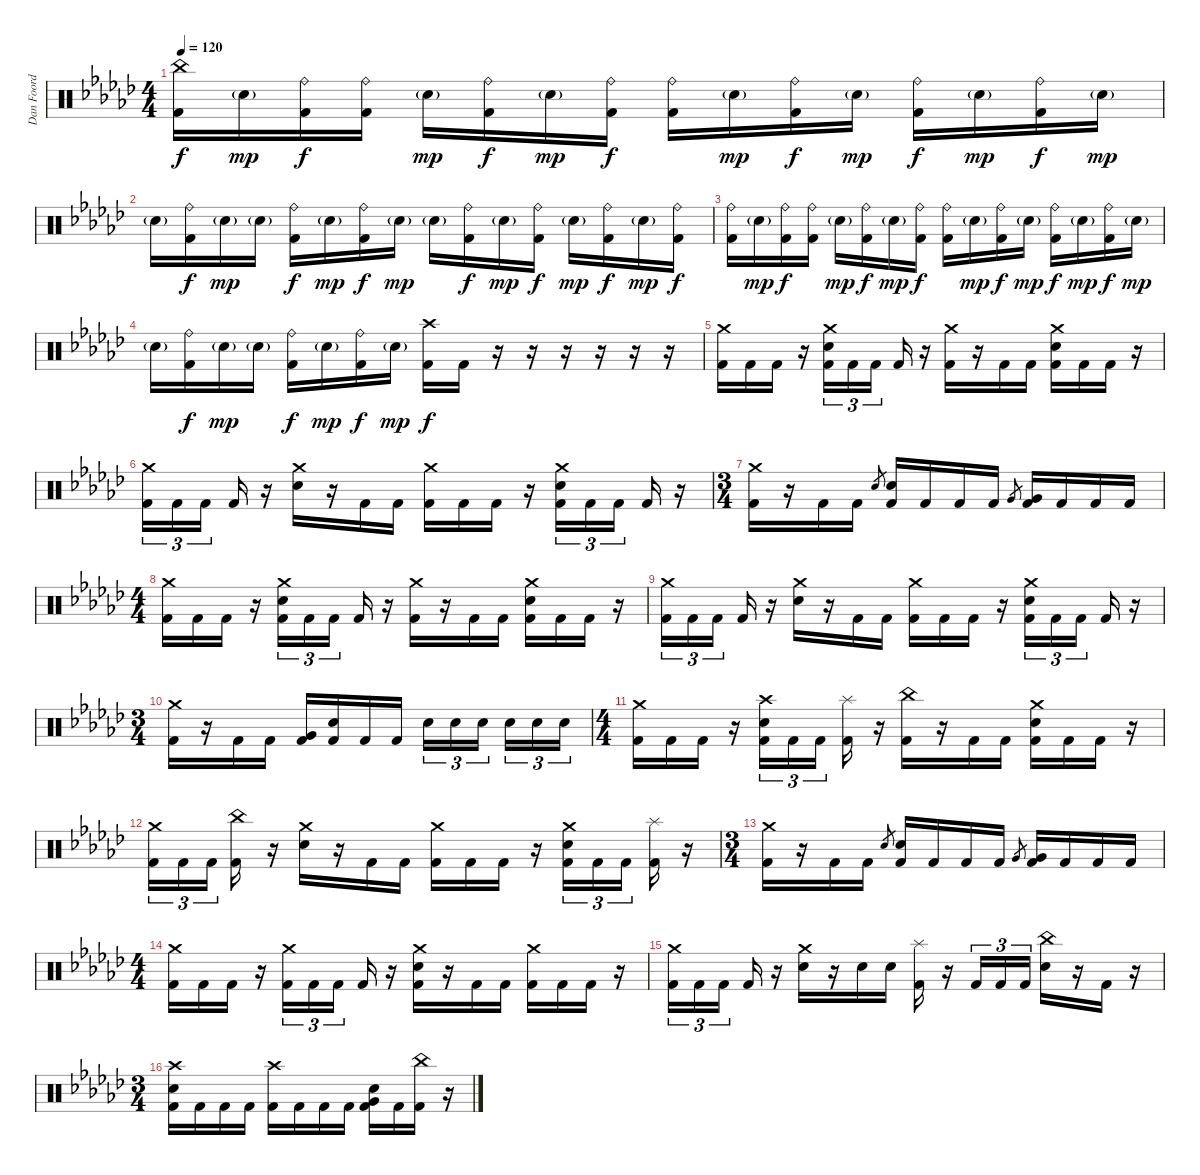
\track ("Dan Foord 2" "Dan Foord ") {instrument percussion}
\staff {score}
\articulation defaults
\ts (4 4)
\tempo 120
\clef neutral
\ks gb
("China (hit)" "Kick (hit) 2").16{dy f} "Snare (hit) 2"{g}.16{dy mp} ("Ride (bell)" "Kick (hit) 2").16{dy f} ("Ride (bell)" "Kick (hit) 2").16 "Snare (hit) 2"{g}.16{dy mp} ("Ride (bell)" "Kick (hit) 2").16{dy f} "Snare (hit) 2"{g}.16{dy mp} ("Ride (bell)" "Kick (hit) 2").16{dy f} ("Ride (bell)" "Kick (hit) 2").16 "Snare (hit) 2"{g}.16{dy mp} ("Ride (bell)" "Kick (hit) 2").16{dy f} "Snare (hit) 2"{g}.16{dy mp} ("Ride (bell)" "Kick (hit) 2").16{dy f} "Snare (hit) 2"{g}.16{dy mp} ("Ride (bell)" "Kick (hit) 2").16{dy f} "Snare (hit) 2"{g}.16{dy mp} |
"Snare (hit) 2"{g}.16 ("Ride (bell)" "Kick (hit) 2").16{dy f} "Snare (hit) 2"{g}.16{dy mp} "Snare (hit) 2"{g}.16 ("Ride (bell)" "Kick (hit) 2").16{dy f} "Snare (hit) 2"{g}.16{dy mp} ("Ride (bell)" "Kick (hit) 2").16{dy f} "Snare (hit) 2"{g}.16{dy mp} "Snare (hit) 2"{g}.16 ("Ride (bell)" "Kick (hit) 2").16{dy f} "Snare (hit) 2"{g}.16{dy mp} ("Ride (bell)" "Kick (hit) 2").16{dy f} "Snare (hit) 2"{g}.16{dy mp} ("Ride (bell)" "Kick (hit) 2").16{dy f} "Snare (hit) 2"{g}.16{dy mp} ("Ride (bell)" "Kick (hit) 2").16{dy f} |
("Ride (bell)" "Kick (hit) 2").16 "Snare (hit) 2"{g}.16{dy mp} ("Ride (bell)" "Kick (hit) 2").16{dy f} ("Ride (bell)" "Kick (hit) 2").16 "Snare (hit) 2"{g}.16{dy mp} ("Ride (bell)" "Kick (hit) 2").16{dy f} "Snare (hit) 2"{g}.16{dy mp} ("Ride (bell)" "Kick (hit) 2").16{dy f} ("Ride (bell)" "Kick (hit) 2").16 "Snare (hit) 2"{g}.16{dy mp} ("Ride (bell)" "Kick (hit) 2").16{dy f} "Snare (hit) 2"{g}.16{dy mp} ("Ride (bell)" "Kick (hit) 2").16{dy f} "Snare (hit) 2"{g}.16{dy mp} ("Ride (bell)" "Kick (hit) 2").16{dy f} "Snare (hit) 2"{g}.16{dy mp} |
"Snare (hit) 2"{g}.16 ("Ride (bell)" "Kick (hit) 2").16{dy f} "Snare (hit) 2"{g}.16{dy mp} "Snare (hit) 2"{g}.16 ("Ride (bell)" "Kick (hit) 2").16{dy f} "Snare (hit) 2"{g}.16{dy mp} ("Ride (bell)" "Kick (hit) 2").16{dy f} "Snare (hit) 2"{g}.16{dy mp} ("Crash high (hit)" "Kick (hit) 2").16{dy f} "Kick (hit) 2".16 r.16 r.16 r.16 r.16 r.16 r.16 |
("Crash medium (hit)" "Kick (hit) 2").16 "Kick (hit) 2".16 "Kick (hit) 2".16 r.16 ("Crash medium (hit)" "Snare (hit) 2" "Kick (hit) 2").16{tu (3 2)} "Kick (hit) 2".16{tu (3 2)} "Kick (hit) 2".16{tu (3 2) beam splitsecondary} "Kick (hit) 2".16 r.16 ("Crash medium (hit)" "Kick (hit) 2").16 r.16 "Kick (hit) 2".16 "Kick (hit) 2".16 ("Crash medium (hit)" "Snare (hit) 2" "Kick (hit) 2").16 "Kick (hit) 2".16 "Kick (hit) 2".16 r.16 |
("Crash medium (hit)" "Kick (hit) 2").16{tu (3 2)} "Kick (hit) 2".16{tu (3 2)} "Kick (hit) 2".16{tu (3 2) beam splitsecondary} "Kick (hit) 2".16 r.16 ("Crash medium (hit)" "Snare (hit) 2").16 r.16 "Kick (hit) 2".16 "Kick (hit) 2".16 ("Crash medium (hit)" "Kick (hit) 2").16 "Kick (hit) 2".16 "Kick (hit) 2".16 r.16 ("Crash medium (hit)" "Snare (hit) 2" "Kick (hit) 2").16{tu (3 2)} "Kick (hit) 2".16{tu (3 2)} "Kick (hit) 2".16{tu (3 2) beam splitsecondary} "Kick (hit) 2".16 r.16 |
\ts (3 4)
("Crash medium (hit)" "Kick (hit) 2").16 r.16 "Kick (hit) 2".16 "Kick (hit) 2".16 "Snare (hit) 2".8{gr} ("Snare (hit) 2" "Kick (hit) 2").16 "Kick (hit) 2".16 "Kick (hit) 2".16 "Kick (hit) 2".16 "Very Low Tom (hit)".8{gr} ("Very Low Tom (hit)" "Kick (hit) 2").16 "Kick (hit) 2".16 "Kick (hit) 2".16 "Kick (hit) 2".16 |
\ts (4 4)
("Crash medium (hit)" "Kick (hit) 2").16 "Kick (hit) 2".16 "Kick (hit) 2".16 r.16 ("Crash medium (hit)" "Snare (hit) 2" "Kick (hit) 2").16{tu (3 2)} "Kick (hit) 2".16{tu (3 2)} "Kick (hit) 2".16{tu (3 2) beam splitsecondary} "Kick (hit) 2".16 r.16 ("Crash medium (hit)" "Kick (hit) 2").16 r.16 "Kick (hit) 2".16 "Kick (hit) 2".16 ("Crash medium (hit)" "Snare (hit) 2" "Kick (hit) 2").16 "Kick (hit) 2".16 "Kick (hit) 2".16 r.16 |
("Crash medium (hit)" "Kick (hit) 2").16{tu (3 2)} "Kick (hit) 2".16{tu (3 2)} "Kick (hit) 2".16{tu (3 2) beam splitsecondary} "Kick (hit) 2".16 r.16 ("Crash medium (hit)" "Snare (hit) 2").16 r.16 "Kick (hit) 2".16 "Kick (hit) 2".16 ("Crash medium (hit)" "Kick (hit) 2").16 "Kick (hit) 2".16 "Kick (hit) 2".16 r.16 ("Crash medium (hit)" "Snare (hit) 2" "Kick (hit) 2").16{tu (3 2)} "Kick (hit) 2".16{tu (3 2)} "Kick (hit) 2".16{tu (3 2) beam splitsecondary} "Kick (hit) 2".16 r.16 |
\ts (3 4)
("Crash medium (hit)" "Kick (hit) 2").16 r.16 "Kick (hit) 2".16 "Kick (hit) 2".16 ("Very Low Tom (hit)" "Kick (hit) 2").16 ("Snare (hit) 2" "Kick (hit) 2").16 "Kick (hit) 2".16 "Kick (hit) 2".16 "Snare (hit) 2".16{tu (3 2)} "Snare (hit) 2".16{tu (3 2)} "Snare (hit) 2".16{tu (3 2) beam splitsecondary} "Snare (hit) 2".16{tu (3 2)} "Snare (hit) 2".16{tu (3 2)} "Snare (hit) 2".16{tu (3 2)} |
\ts (4 4)
("Crash medium (hit)" "Kick (hit) 2").16 "Kick (hit) 2".16 "Kick (hit) 2".16 r.16 ("Crash high (hit)" "Snare (hit) 2" "Kick (hit) 2").16{tu (3 2)} "Kick (hit) 2".16{tu (3 2)} "Kick (hit) 2".16{tu (3 2) beam splitsecondary} ("Splash (hit)" "Kick (hit) 2").16 r.16 ("China (hit)" "Kick (hit) 2").16 r.16 "Kick (hit) 2".16 "Kick (hit) 2".16 ("Crash medium (hit)" "Snare (hit) 2" "Kick (hit) 2").16 "Kick (hit) 2".16 "Kick (hit) 2".16 r.16 |
("Crash medium (hit)" "Kick (hit) 2").16{tu (3 2)} "Kick (hit) 2".16{tu (3 2)} "Kick (hit) 2".16{tu (3 2) beam splitsecondary} ("China (hit)" "Kick (hit) 2").16 r.16 ("Crash medium (hit)" "Snare (hit) 2").16 r.16 "Kick (hit) 2".16 "Kick (hit) 2".16 ("Crash medium (hit)" "Kick (hit) 2").16 "Kick (hit) 2".16 "Kick (hit) 2".16 r.16 ("Crash medium (hit)" "Snare (hit) 2" "Kick (hit) 2").16{tu (3 2)} "Kick (hit) 2".16{tu (3 2)} "Kick (hit) 2".16{tu (3 2) beam splitsecondary} ("Splash (hit)" "Kick (hit) 2").16 r.16 |
\ts (3 4)
("Crash medium (hit)" "Kick (hit) 2").16 r.16 "Kick (hit) 2".16 "Kick (hit) 2".16 "Snare (hit) 2".8{gr} ("Snare (hit) 2" "Kick (hit) 2").16 "Kick (hit) 2".16 "Kick (hit) 2".16 "Kick (hit) 2".16 "Very Low Tom (hit)".8{gr} ("Very Low Tom (hit)" "Kick (hit) 2").16 "Kick (hit) 2".16 "Kick (hit) 2".16 "Kick (hit) 2".16 |
\ts (4 4)
("Crash medium (hit)" "Kick (hit) 2").16 "Kick (hit) 2".16 "Kick (hit) 2".16 r.16 ("Crash medium (hit)" "Kick (hit) 2").16{tu (3 2)} "Kick (hit) 2".16{tu (3 2)} "Kick (hit) 2".16{tu (3 2) beam splitsecondary} "Kick (hit) 2".16 r.16 ("Crash medium (hit)" "Snare (hit) 2" "Kick (hit) 2").16 r.16 "Kick (hit) 2".16 "Kick (hit) 2".16 ("Crash medium (hit)" "Kick (hit) 2").16 "Kick (hit) 2".16 "Kick (hit) 2".16 r.16 |
("Crash medium (hit)" "Kick (hit) 2").16{tu (3 2)} "Kick (hit) 2".16{tu (3 2)} "Kick (hit) 2".16{tu (3 2) beam splitsecondary} "Kick (hit) 2".16 r.16 ("Crash medium (hit)" "Snare (hit) 2").16 r.16 "Snare (hit) 2".16 "Snare (hit) 2".16 ("Splash (hit)" "Kick (hit) 2").16 r.16 "Kick (hit) 2".16{tu (3 2)} "Kick (hit) 2".16{tu (3 2)} "Kick (hit) 2".16{tu (3 2)} ("China (hit)" "Snare (hit) 2").16 r.16 "Kick (hit) 2".16 r.16 |
\ts (3 4)
("Crash high (hit)" "Snare (hit) 2" "Kick (hit) 2").16 "Kick (hit) 2".16 "Kick (hit) 2".16 "Kick (hit) 2".16 ("Crash high (hit)" "Kick (hit) 2").16 "Kick (hit) 2".16 "Kick (hit) 2".16 "Kick (hit) 2".16 ("Snare (hit) 2" "Very Low Tom (hit)" "Kick (hit) 2").16 "Kick (hit) 2".16 ("China (hit)" "Kick (hit) 2").16 r.16
